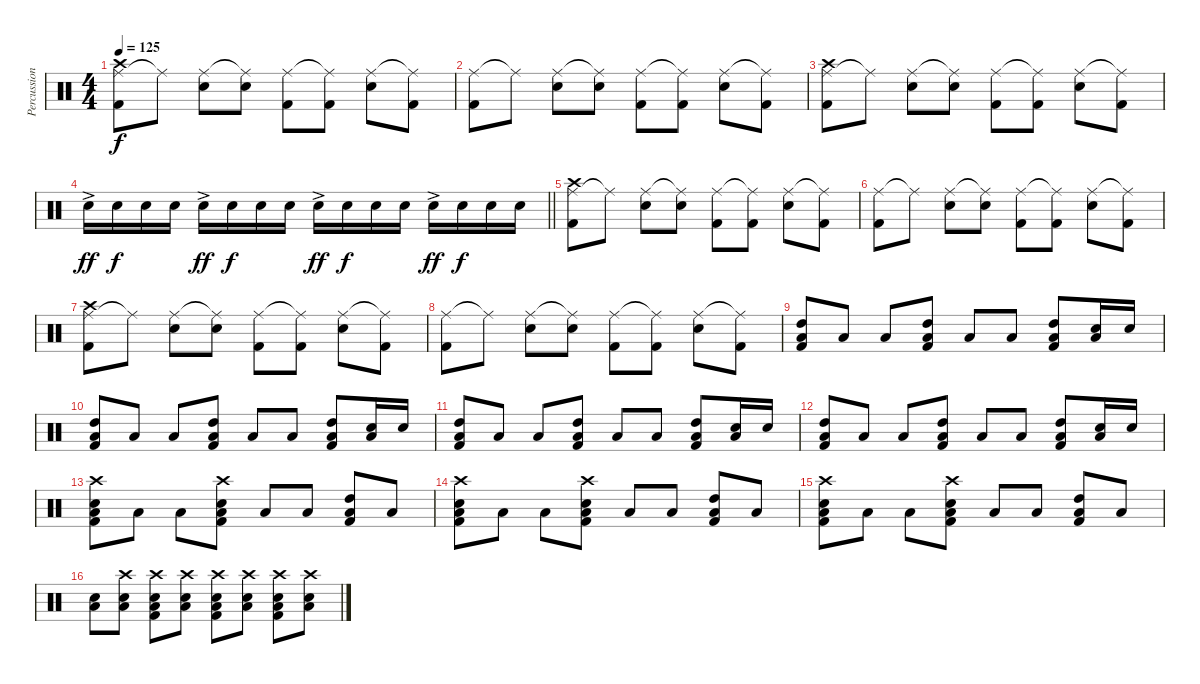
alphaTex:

\track ("Percussion" "Percussion") {instrument percussion}
\staff {score}
\articulation defaults
\ts (4 4)
\tempo 125
\clef neutral
\ks c
("Ride (middle)" "Crash high (hit)" "Kick (hit) 2").8{dy f} "Ride (middle)"{t}.8 ("Ride (middle)" "Snare (hit) 2").8 ("Ride (middle)"{t} "Snare (hit) 2").8 ("Ride (middle)" "Kick (hit) 2").8 ("Ride (middle)"{t} "Kick (hit) 2").8 ("Ride (middle)" "Snare (hit) 2").8 ("Ride (middle)"{t} "Kick (hit) 2").8 |
("Ride (middle)" "Kick (hit) 2").8 "Ride (middle)"{t}.8 ("Ride (middle)" "Snare (hit) 2").8 ("Ride (middle)"{t} "Snare (hit) 2").8 ("Ride (middle)" "Kick (hit) 2").8 ("Ride (middle)"{t} "Kick (hit) 2").8 ("Ride (middle)" "Snare (hit) 2").8 ("Ride (middle)"{t} "Kick (hit) 2").8 |
("Ride (middle)" "Crash high (hit)" "Kick (hit) 2").8 "Ride (middle)"{t}.8 ("Ride (middle)" "Snare (hit) 2").8 ("Ride (middle)"{t} "Snare (hit) 2").8 ("Ride (middle)" "Kick (hit) 2").8 ("Ride (middle)"{t} "Kick (hit) 2").8 ("Ride (middle)" "Snare (hit) 2").8 ("Ride (middle)"{t} "Kick (hit) 2").8 |
\barLineRight lightlight "Snare (hit) 2"{ac}.16{dy ff} "Snare (hit) 2".16{dy f} "Snare (hit) 2".16 "Snare (hit) 2".16 "Snare (hit) 2"{ac}.16{dy ff} "Snare (hit) 2".16{dy f} "Snare (hit) 2".16 "Snare (hit) 2".16 "Snare (hit) 2"{ac}.16{dy ff} "Snare (hit) 2".16{dy f} "Snare (hit) 2".16 "Snare (hit) 2".16 "Snare (hit) 2"{ac}.16{dy ff} "Snare (hit) 2".16{dy f} "Snare (hit) 2".16 "Snare (hit) 2".16
|
("Ride (middle)" "Crash high (hit)" "Kick (hit) 2").8 "Ride (middle)"{t}.8 ("Ride (middle)" "Snare (hit) 2").8 ("Ride (middle)"{t} "Snare (hit) 2").8 ("Ride (middle)" "Kick (hit) 2").8 ("Ride (middle)"{t} "Kick (hit) 2").8 ("Ride (middle)" "Snare (hit) 2").8 ("Ride (middle)"{t} "Kick (hit) 2").8 |
("Ride (middle)" "Kick (hit) 2").8 "Ride (middle)"{t}.8 ("Ride (middle)" "Snare (hit) 2").8 ("Ride (middle)"{t} "Snare (hit) 2").8 ("Ride (middle)" "Kick (hit) 2").8 ("Ride (middle)"{t} "Kick (hit) 2").8 ("Ride (middle)" "Snare (hit) 2").8 ("Ride (middle)"{t} "Kick (hit) 2").8 |
("Ride (middle)" "Crash high (hit)" "Kick (hit) 2").8 "Ride (middle)"{t}.8 ("Ride (middle)" "Snare (hit) 2").8 ("Ride (middle)"{t} "Snare (hit) 2").8 ("Ride (middle)" "Kick (hit) 2").8 ("Ride (middle)"{t} "Kick (hit) 2").8 ("Ride (middle)" "Snare (hit) 2").8 ("Ride (middle)"{t} "Kick (hit) 2").8 |
("Ride (middle)" "Kick (hit) 2").8 "Ride (middle)"{t}.8 ("Ride (middle)" "Snare (hit) 2").8 ("Ride (middle)"{t} "Snare (hit) 2").8 ("Ride (middle)" "Kick (hit) 2").8 ("Ride (middle)"{t} "Kick (hit) 2").8 ("Ride (middle)" "Snare (hit) 2").8 ("Ride (middle)"{t} "Kick (hit) 2").8 |
("High Tom (hit)" "Low Floor Tom (hit)" "Kick (hit) 2").8 "Low Floor Tom (hit)".8 "Low Floor Tom (hit)".8 ("High Tom (hit)" "Low Floor Tom (hit)" "Kick (hit) 2").8 "Low Floor Tom (hit)".8 "Low Floor Tom (hit)".8 ("High Tom (hit)" "Low Floor Tom (hit)" "Kick (hit) 2").8 ("Snare (hit) 2" "Low Floor Tom (hit)").16 "Snare (hit) 2".16 |
("High Tom (hit)" "Low Floor Tom (hit)" "Kick (hit) 2").8 "Low Floor Tom (hit)".8 "Low Floor Tom (hit)".8 ("High Tom (hit)" "Low Floor Tom (hit)" "Kick (hit) 2").8 "Low Floor Tom (hit)".8 "Low Floor Tom (hit)".8 ("High Tom (hit)" "Low Floor Tom (hit)" "Kick (hit) 2").8 ("Snare (hit) 2" "Low Floor Tom (hit)").16 "Snare (hit) 2".16 |
("High Tom (hit)" "Low Floor Tom (hit)" "Kick (hit) 2").8 "Low Floor Tom (hit)".8 "Low Floor Tom (hit)".8 ("High Tom (hit)" "Low Floor Tom (hit)" "Kick (hit) 2").8 "Low Floor Tom (hit)".8 "Low Floor Tom (hit)".8 ("High Tom (hit)" "Low Floor Tom (hit)" "Kick (hit) 2").8 ("Snare (hit) 2" "Low Floor Tom (hit)").16 "Snare (hit) 2".16 |
("High Tom (hit)" "Low Floor Tom (hit)" "Kick (hit) 2").8 "Low Floor Tom (hit)".8 "Low Floor Tom (hit)".8 ("High Tom (hit)" "Low Floor Tom (hit)" "Kick (hit) 2").8 "Low Floor Tom (hit)".8 "Low Floor Tom (hit)".8 ("High Tom (hit)" "Low Floor Tom (hit)" "Kick (hit) 2").8 ("Snare (hit) 2" "Low Floor Tom (hit)").16 "Snare (hit) 2".16 |
("Crash high (hit)" "Snare (hit) 2" "Low Floor Tom (hit)" "Kick (hit) 2").8 "Low Floor Tom (hit)".8 "Low Floor Tom (hit)".8 ("Crash high (hit)" "Snare (hit) 2" "Low Floor Tom (hit)" "Kick (hit) 2").8 "Low Floor Tom (hit)".8 "Low Floor Tom (hit)".8 ("High Tom (hit)" "Low Floor Tom (hit)" "Kick (hit) 2").8 "Low Floor Tom (hit)".8 |
("Crash high (hit)" "Snare (hit) 2" "Low Floor Tom (hit)" "Kick (hit) 2").8 "Low Floor Tom (hit)".8 "Low Floor Tom (hit)".8 ("Crash high (hit)" "Snare (hit) 2" "Low Floor Tom (hit)" "Kick (hit) 2").8 "Low Floor Tom (hit)".8 "Low Floor Tom (hit)".8 ("High Tom (hit)" "Low Floor Tom (hit)" "Kick (hit) 2").8 "Low Floor Tom (hit)".8 |
("Crash high (hit)" "Snare (hit) 2" "Low Floor Tom (hit)" "Kick (hit) 2").8 "Low Floor Tom (hit)".8 "Low Floor Tom (hit)".8 ("Crash high (hit)" "Snare (hit) 2" "Low Floor Tom (hit)" "Kick (hit) 2").8 "Low Floor Tom (hit)".8 "Low Floor Tom (hit)".8 ("High Tom (hit)" "Low Floor Tom (hit)" "Kick (hit) 2").8 "Low Floor Tom (hit)".8 |
("Snare (hit) 2" "Low Floor Tom (hit)").8 ("Crash high (hit)" "Snare (hit) 2" "Low Floor Tom (hit)").8 ("Crash high (hit)" "Snare (hit) 2" "Low Floor Tom (hit)" "Kick (hit) 2").8 ("Crash high (hit)" "Snare (hit) 2" "Low Floor Tom (hit)").8 ("Crash high (hit)" "Snare (hit) 2" "Low Floor Tom (hit)" "Kick (hit) 2").8 ("Crash high (hit)" "Snare (hit) 2" "Low Floor Tom (hit)").8 ("Crash high (hit)" "Snare (hit) 2" "Low Floor Tom (hit)" "Kick (hit) 2").8 ("Crash high (hit)" "Snare (hit) 2" "Low Floor Tom (hit)").8
